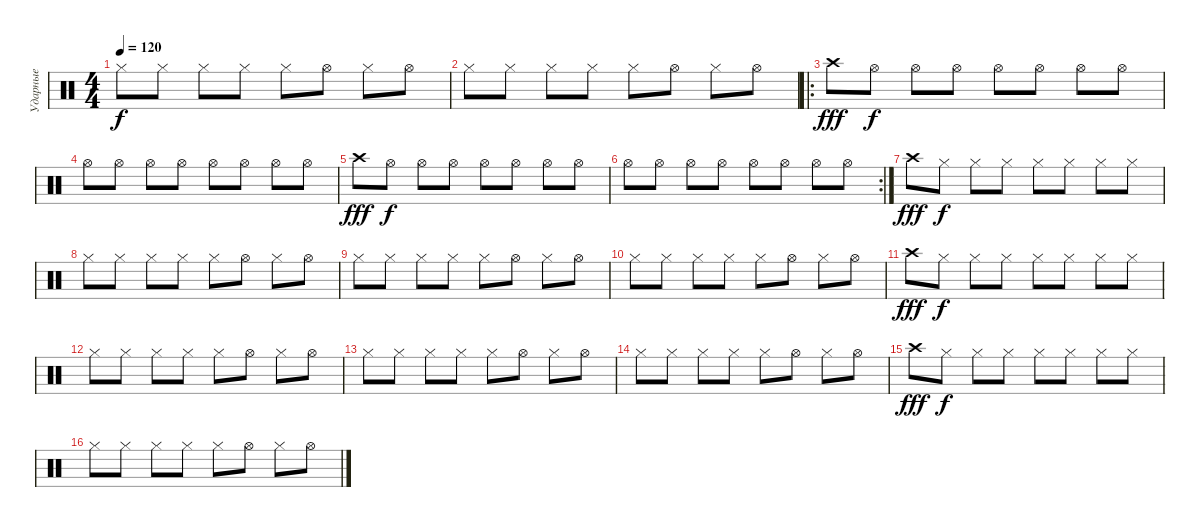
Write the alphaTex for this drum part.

\track ("Ударные" "Ударные") {instrument percussion}
\staff {score}
\articulation defaults
\ts (4 4)
\tempo 120
\clef neutral
\ks c "Hi-Hat (closed)".8{dy f} "Hi-Hat (closed)".8 "Hi-Hat (closed)".8 "Hi-Hat (closed)".8 "Hi-Hat (closed)".8 "Hi-Hat (open)".8 "Hi-Hat (closed)".8 "Hi-Hat (open)".8
|
"Hi-Hat (closed)".8 "Hi-Hat (closed)".8 "Hi-Hat (closed)".8 "Hi-Hat (closed)".8 "Hi-Hat (closed)".8 "Hi-Hat (open)".8 "Hi-Hat (closed)".8 "Hi-Hat (open)".8 |
\ro "Crash high (hit)".8{dy fff volume 16} "Hi-Hat (open)".8{dy f} "Hi-Hat (open)".8 "Hi-Hat (open)".8 "Hi-Hat (open)".8 "Hi-Hat (open)".8 "Hi-Hat (open)".8 "Hi-Hat (open)".8
|
"Hi-Hat (open)".8 "Hi-Hat (open)".8 "Hi-Hat (open)".8 "Hi-Hat (open)".8 "Hi-Hat (open)".8 "Hi-Hat (open)".8 "Hi-Hat (open)".8 "Hi-Hat (open)".8 |
"Crash high (hit)".8{dy fff volume 16} "Hi-Hat (open)".8{dy f} "Hi-Hat (open)".8 "Hi-Hat (open)".8 "Hi-Hat (open)".8 "Hi-Hat (open)".8 "Hi-Hat (open)".8 "Hi-Hat (open)".8 |
\rc 2 "Hi-Hat (open)".8 "Hi-Hat (open)".8 "Hi-Hat (open)".8 "Hi-Hat (open)".8 "Hi-Hat (open)".8 "Hi-Hat (open)".8 "Hi-Hat (open)".8 "Hi-Hat (open)".8
|
"Crash high (hit)".8{dy fff volume 16} "Hi-Hat (closed)".8{dy f} "Hi-Hat (closed)".8 "Hi-Hat (closed)".8 "Hi-Hat (closed)".8 "Hi-Hat (closed)".8 "Hi-Hat (closed)".8 "Hi-Hat (closed)".8 |
"Hi-Hat (closed)".8 "Hi-Hat (closed)".8 "Hi-Hat (closed)".8 "Hi-Hat (closed)".8 "Hi-Hat (closed)".8 "Hi-Hat (open)".8 "Hi-Hat (closed)".8 "Hi-Hat (open)".8 |
"Hi-Hat (closed)".8 "Hi-Hat (closed)".8 "Hi-Hat (closed)".8 "Hi-Hat (closed)".8 "Hi-Hat (closed)".8 "Hi-Hat (open)".8 "Hi-Hat (closed)".8 "Hi-Hat (open)".8 |
"Hi-Hat (closed)".8 "Hi-Hat (closed)".8 "Hi-Hat (closed)".8 "Hi-Hat (closed)".8 "Hi-Hat (closed)".8 "Hi-Hat (open)".8 "Hi-Hat (closed)".8 "Hi-Hat (open)".8 |
"Crash high (hit)".8{dy fff volume 16} "Hi-Hat (closed)".8{dy f} "Hi-Hat (closed)".8 "Hi-Hat (closed)".8 "Hi-Hat (closed)".8 "Hi-Hat (closed)".8 "Hi-Hat (closed)".8 "Hi-Hat (closed)".8 |
"Hi-Hat (closed)".8 "Hi-Hat (closed)".8 "Hi-Hat (closed)".8 "Hi-Hat (closed)".8 "Hi-Hat (closed)".8 "Hi-Hat (open)".8 "Hi-Hat (closed)".8 "Hi-Hat (open)".8 |
"Hi-Hat (closed)".8 "Hi-Hat (closed)".8 "Hi-Hat (closed)".8 "Hi-Hat (closed)".8 "Hi-Hat (closed)".8 "Hi-Hat (open)".8 "Hi-Hat (closed)".8 "Hi-Hat (open)".8 |
"Hi-Hat (closed)".8 "Hi-Hat (closed)".8 "Hi-Hat (closed)".8 "Hi-Hat (closed)".8 "Hi-Hat (closed)".8 "Hi-Hat (open)".8 "Hi-Hat (closed)".8 "Hi-Hat (open)".8 |
"Crash high (hit)".8{dy fff volume 16} "Hi-Hat (closed)".8{dy f} "Hi-Hat (closed)".8 "Hi-Hat (closed)".8 "Hi-Hat (closed)".8 "Hi-Hat (closed)".8 "Hi-Hat (closed)".8 "Hi-Hat (closed)".8 |
"Hi-Hat (closed)".8 "Hi-Hat (closed)".8 "Hi-Hat (closed)".8 "Hi-Hat (closed)".8 "Hi-Hat (closed)".8 "Hi-Hat (open)".8 "Hi-Hat (closed)".8 "Hi-Hat (open)".8
